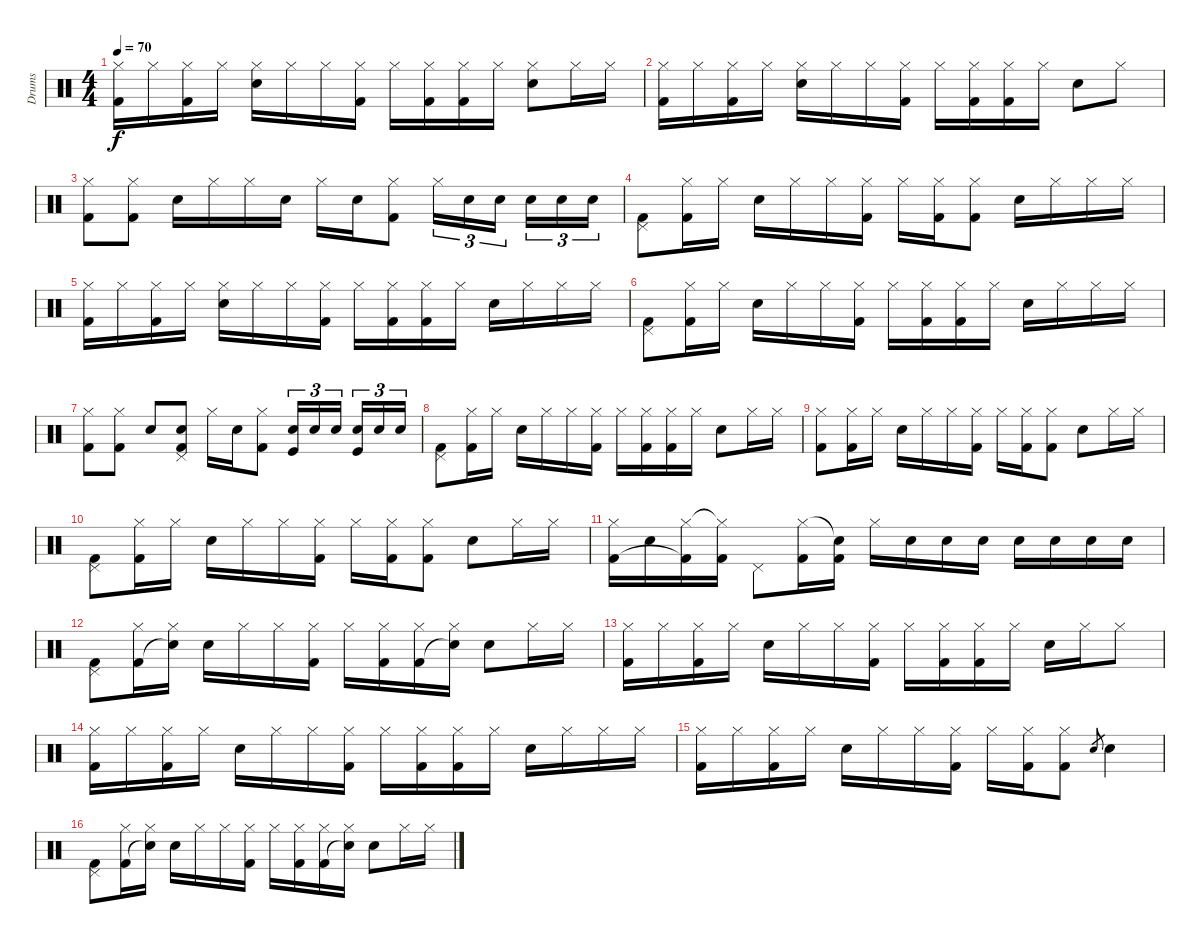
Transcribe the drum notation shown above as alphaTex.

\track ("Drums" "Drums") {instrument percussion}
\staff {score}
\articulation defaults
\ts (4 4)
\tempo 70
\clef neutral
\ks c
("Hi-Hat (closed)" "Kick (hit) 2").16{dy f} "Hi-Hat (closed)".16 ("Hi-Hat (closed)" "Kick (hit) 2").16 "Hi-Hat (closed)".16 ("Hi-Hat (closed)" "Snare (hit) 2").16 "Hi-Hat (closed)".16 "Hi-Hat (closed)".16 ("Hi-Hat (closed)" "Kick (hit) 2").16 "Hi-Hat (closed)".16 ("Hi-Hat (closed)" "Kick (hit) 2").16 ("Hi-Hat (closed)" "Kick (hit) 2").16 "Hi-Hat (closed)".16 ("Hi-Hat (closed)" "Snare (hit) 2").8 "Hi-Hat (closed)".16 "Hi-Hat (closed)".16 |
("Hi-Hat (closed)" "Kick (hit) 2").16 "Hi-Hat (closed)".16 ("Hi-Hat (closed)" "Kick (hit) 2").16 "Hi-Hat (closed)".16 ("Hi-Hat (closed)" "Snare (hit) 2").16 "Hi-Hat (closed)".16 "Hi-Hat (closed)".16 ("Hi-Hat (closed)" "Kick (hit) 2").16 "Hi-Hat (closed)".16 ("Hi-Hat (closed)" "Kick (hit) 2").16 ("Hi-Hat (closed)" "Kick (hit) 2").16 "Hi-Hat (closed)".16 "Snare (hit) 2".8 "Hi-Hat (closed)".8 |
("Hi-Hat (closed)" "Kick (hit) 2").8 ("Hi-Hat (closed)" "Kick (hit) 2").8 "Snare (hit) 2".16 "Hi-Hat (closed)".16 "Hi-Hat (closed)".16 "Electric Snare (hit)".16 "Hi-Hat (closed)".16 "Snare (hit) 2".16 ("Hi-Hat (closed)" "Kick (hit) 2").8 "Hi-Hat (closed)".16{tu (3 2)} "Snare (hit) 2".16{tu (3 2)} "Snare (hit) 2".16{tu (3 2)} "Snare (hit) 2".16{tu (3 2)} "Snare (hit) 2".16{tu (3 2)} "Snare (hit) 2".16{tu (3 2)} |
("Pedal Hi-Hat (hit)" "Kick (hit) 2").8 ("Hi-Hat (closed)" "Kick (hit) 2").16 "Hi-Hat (closed)".16 "Snare (hit) 2".16 "Hi-Hat (closed)".16 "Hi-Hat (closed)".16 ("Hi-Hat (closed)" "Kick (hit) 2").16 "Hi-Hat (closed)".16 ("Hi-Hat (closed)" "Kick (hit) 2").16 ("Hi-Hat (closed)" "Kick (hit) 2").8 "Snare (hit) 2".16 "Hi-Hat (closed)".16 "Hi-Hat (closed)".16 "Hi-Hat (closed)".16 |
("Hi-Hat (closed)" "Kick (hit) 2").16 "Hi-Hat (closed)".16 ("Hi-Hat (closed)" "Kick (hit) 2").16 "Hi-Hat (closed)".16 ("Hi-Hat (closed)" "Snare (hit) 2").16 "Hi-Hat (closed)".16 "Hi-Hat (closed)".16 ("Hi-Hat (closed)" "Kick (hit) 2").16 "Hi-Hat (closed)".16 ("Hi-Hat (closed)" "Kick (hit) 2").16 ("Hi-Hat (closed)" "Kick (hit) 2").16 "Hi-Hat (closed)".16 "Snare (hit) 2".16 "Hi-Hat (closed)".16 "Hi-Hat (closed)".16 "Hi-Hat (closed)".16 |
("Pedal Hi-Hat (hit)" "Kick (hit) 2").8 ("Hi-Hat (closed)" "Kick (hit) 2").16 "Hi-Hat (closed)".16 "Snare (hit) 2".16 "Hi-Hat (closed)".16 "Hi-Hat (closed)".16 ("Hi-Hat (closed)" "Kick (hit) 2").16 "Hi-Hat (closed)".16 ("Hi-Hat (closed)" "Kick (hit) 2").16 ("Hi-Hat (closed)" "Kick (hit) 2").16 "Hi-Hat (closed)".16 "Snare (hit) 2".16 "Hi-Hat (closed)".16 "Hi-Hat (closed)".16 "Hi-Hat (closed)".16 |
("Hi-Hat (closed)" "Kick (hit) 2").8 ("Hi-Hat (closed)" "Kick (hit) 2").8 "Snare (hit) 2".8 ("Pedal Hi-Hat (hit)" "Snare (hit) 2" "Kick (hit) 2").8 "Hi-Hat (closed)".16 "Snare (hit) 2".16 ("Hi-Hat (closed)" "Kick (hit) 2").8 ("Snare (hit) 2" "Kick (hit)").16{tu (3 2)} "Snare (hit) 2".16{tu (3 2)} "Electric Snare (hit)".16{tu (3 2)} ("Electric Snare (hit)" "Kick (hit)").16{tu (3 2)} "Snare (hit) 2".16{tu (3 2)} "Snare (hit) 2".16{tu (3 2)} |
("Pedal Hi-Hat (hit)" "Kick (hit) 2").8 ("Hi-Hat (closed)" "Kick (hit) 2").16 "Hi-Hat (closed)".16 "Snare (hit) 2".16 "Hi-Hat (closed)".16 "Hi-Hat (closed)".16 ("Hi-Hat (closed)" "Kick (hit) 2").16 "Hi-Hat (closed)".16 ("Hi-Hat (closed)" "Kick (hit) 2").16 ("Hi-Hat (closed)" "Kick (hit) 2").16 "Hi-Hat (closed)".16 "Snare (hit) 2".8 "Hi-Hat (closed)".16 "Hi-Hat (closed)".16 |
("Hi-Hat (closed)" "Kick (hit) 2").8 ("Hi-Hat (closed)" "Kick (hit) 2").16 "Hi-Hat (closed)".16 "Snare (hit) 2".16 "Hi-Hat (closed)".16 "Hi-Hat (closed)".16 ("Hi-Hat (closed)" "Kick (hit) 2").16 "Hi-Hat (closed)".16 ("Hi-Hat (closed)" "Kick (hit) 2").16 ("Hi-Hat (closed)" "Kick (hit) 2").8 "Snare (hit) 2".8 "Hi-Hat (closed)".16 "Hi-Hat (closed)".16 |
("Pedal Hi-Hat (hit)" "Kick (hit) 2").8 ("Hi-Hat (closed)" "Kick (hit) 2").16 "Hi-Hat (closed)".16 "Snare (hit) 2".16 "Hi-Hat (closed)".16 "Hi-Hat (closed)".16 ("Hi-Hat (closed)" "Kick (hit) 2").16 "Hi-Hat (closed)".16 ("Hi-Hat (closed)" "Kick (hit) 2").16 ("Hi-Hat (closed)" "Kick (hit) 2").8 "Snare (hit) 2".8 "Hi-Hat (closed)".16 "Hi-Hat (closed)".16 |
("Hi-Hat (closed)" "Kick (hit) 2").16 "Snare (hit) 2".16 ("Hi-Hat (closed)" "Kick (hit) 2"{t}).16 ("Hi-Hat (closed)"{t} "Kick (hit) 2").16 "Pedal Hi-Hat (hit)".8 ("Hi-Hat (closed)" "Kick (hit) 2").16 ("Snare (hit)"{t} "Kick (hit) 2").16 "Hi-Hat (closed)".16 "Snare (hit) 2".16 "Electric Snare (hit)".16 "Snare (hit) 2".16 "Snare (hit) 2".16 "Electric Snare (hit)".16 "Snare (hit) 2".16 "Snare (hit) 2".16 |
("Pedal Hi-Hat (hit)" "Kick (hit) 2").8 ("Hi-Hat (closed)" "Kick (hit) 2").16 ("Hi-Hat (closed)" "Snare (hit)"{t}).16 "Snare (hit) 2".16 "Hi-Hat (closed)".16 "Hi-Hat (closed)".16 ("Hi-Hat (closed)" "Kick (hit) 2").16 "Hi-Hat (closed)".16 ("Hi-Hat (closed)" "Kick (hit) 2").16 ("Hi-Hat (closed)" "Kick (hit) 2").16 ("Hi-Hat (closed)" "Snare (hit)"{t}).16 "Snare (hit) 2".8 "Hi-Hat (closed)".16 "Hi-Hat (closed)".16 |
("Hi-Hat (closed)" "Kick (hit) 2").16 "Hi-Hat (closed)".16 ("Hi-Hat (closed)" "Kick (hit) 2").16 "Hi-Hat (closed)".16 "Snare (hit) 2".16 "Hi-Hat (closed)".16 "Hi-Hat (closed)".16 ("Hi-Hat (closed)" "Kick (hit) 2").16 "Hi-Hat (closed)".16 ("Hi-Hat (closed)" "Kick (hit) 2").16 ("Hi-Hat (closed)" "Kick (hit) 2").16 "Hi-Hat (closed)".16 "Snare (hit) 2".16 "Hi-Hat (closed)".16 "Hi-Hat (closed)".8 |
("Hi-Hat (closed)" "Kick (hit) 2").16 "Hi-Hat (closed)".16 ("Hi-Hat (closed)" "Kick (hit) 2").16 "Hi-Hat (closed)".16 "Snare (hit) 2".16 "Hi-Hat (closed)".16 "Hi-Hat (closed)".16 ("Hi-Hat (closed)" "Kick (hit) 2").16 "Hi-Hat (closed)".16 ("Hi-Hat (closed)" "Kick (hit) 2").16 ("Hi-Hat (closed)" "Kick (hit) 2").16 "Hi-Hat (closed)".16 "Snare (hit) 2".16 "Hi-Hat (closed)".16 "Hi-Hat (closed)".16 "Hi-Hat (closed)".16 |
("Hi-Hat (closed)" "Kick (hit) 2").16 "Hi-Hat (closed)".16 ("Hi-Hat (closed)" "Kick (hit) 2").16 "Hi-Hat (closed)".16 "Snare (hit) 2".16 "Hi-Hat (closed)".16 "Hi-Hat (closed)".16 ("Hi-Hat (closed)" "Kick (hit) 2").16 "Hi-Hat (closed)".16 ("Hi-Hat (closed)" "Kick (hit) 2").16 ("Hi-Hat (closed)" "Kick (hit) 2").8 "Snare (hit) 2".8{gr} "Snare (hit) 2".4 |
("Pedal Hi-Hat (hit)" "Kick (hit) 2").8 ("Hi-Hat (closed)" "Kick (hit) 2").16 ("Hi-Hat (closed)" "Snare (hit)"{t}).16 "Snare (hit) 2".16 "Hi-Hat (closed)".16 "Hi-Hat (closed)".16 ("Hi-Hat (closed)" "Kick (hit) 2").16 "Hi-Hat (closed)".16 ("Hi-Hat (closed)" "Kick (hit) 2").16 ("Hi-Hat (closed)" "Kick (hit) 2").16 ("Hi-Hat (closed)" "Snare (hit)"{t}).16 "Snare (hit) 2".8 "Hi-Hat (closed)".16 "Hi-Hat (closed)".16
